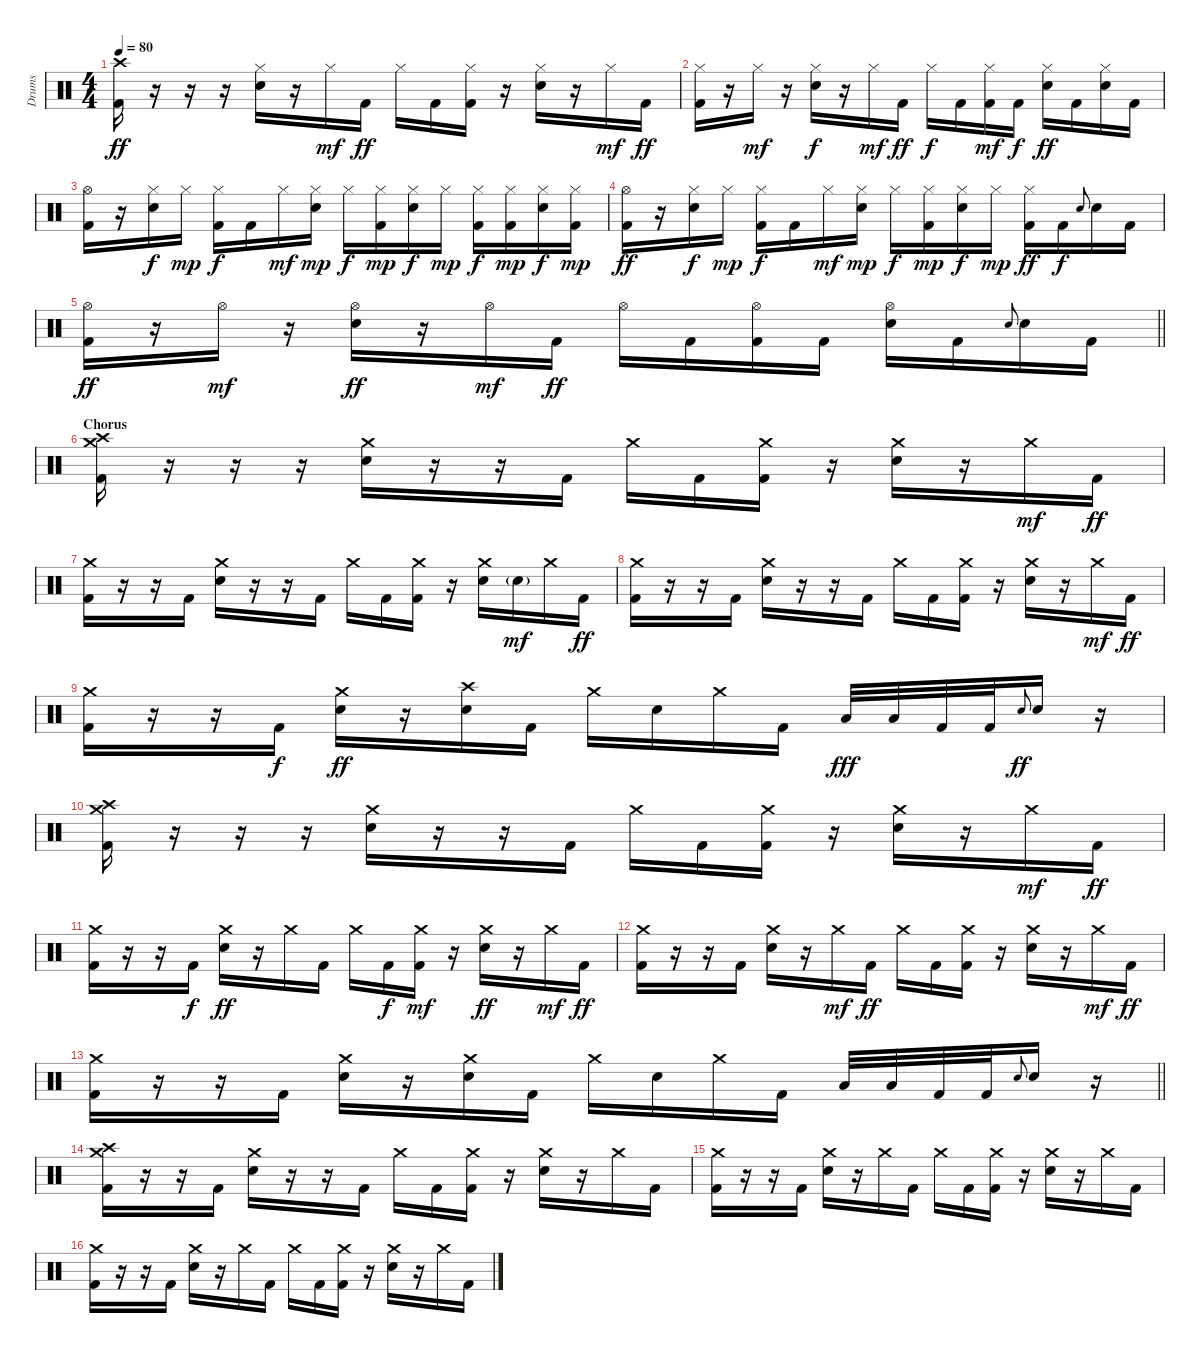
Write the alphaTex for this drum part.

\track ("Drums" "Drums") {instrument percussion}
\staff {score}
\articulation defaults
\ts (4 4)
\tempo 80
\clef neutral
\ks c
("Crash high (hit)" "Kick (hit) 2").16{dy ff} r.16 r.16 r.16 ("Hi-Hat (closed)" "Electric Snare (hit)").16 r.16 "Hi-Hat (closed)".16{dy mf} "Kick (hit) 2".16{dy ff} "Hi-Hat (closed)".16 "Kick (hit) 2".16 ("Hi-Hat (closed)" "Kick (hit) 2").16 r.16 ("Hi-Hat (closed)" "Electric Snare (hit)").16 r.16 "Hi-Hat (closed)".16{dy mf} "Kick (hit) 2".16{dy ff} |
("Hi-Hat (closed)" "Kick (hit) 2").16 r.16 "Hi-Hat (closed)".16{dy mf} r.16 ("Hi-Hat (closed)" "Electric Snare (hit)").16{dy f} r.16 "Hi-Hat (closed)".16{dy mf} "Kick (hit) 2".16{dy ff} "Hi-Hat (closed)".16{dy f} "Kick (hit) 2".16 ("Hi-Hat (closed)" "Kick (hit) 2").16{dy mf} "Kick (hit) 2".16{dy f} ("Hi-Hat (closed)" "Electric Snare (hit)").16{dy ff} "Kick (hit) 2".16 ("Hi-Hat (closed)" "Electric Snare (hit)").16 "Kick (hit) 2".16 |
("Hi-Hat (open)" "Kick (hit) 2").16 r.16 ("Hi-Hat (closed)" "Electric Snare (hit)").16{dy f} "Hi-Hat (closed)".16{dy mp} ("Hi-Hat (closed)" "Kick (hit) 2").16{dy f} "Kick (hit) 2".16 "Hi-Hat (closed)".16{dy mf} ("Hi-Hat (closed)" "Electric Snare (hit)").16{dy mp} "Hi-Hat (closed)".16{dy f} ("Hi-Hat (closed)" "Kick (hit) 2").16{dy mp} ("Hi-Hat (closed)" "Electric Snare (hit)").16{dy f} "Hi-Hat (closed)".16{dy mp} ("Hi-Hat (closed)" "Kick (hit) 2").16{dy f} ("Hi-Hat (closed)" "Kick (hit) 2").16{dy mp} ("Hi-Hat (closed)" "Electric Snare (hit)").16{dy f} ("Hi-Hat (closed)" "Kick (hit) 2").16{dy mp} |
("Hi-Hat (open)" "Kick (hit) 2").16{dy ff} r.16 ("Hi-Hat (closed)" "Electric Snare (hit)").16{dy f} "Hi-Hat (closed)".16{dy mp} ("Hi-Hat (closed)" "Kick (hit) 2").16{dy f} "Kick (hit) 2".16 "Hi-Hat (closed)".16{dy mf} ("Hi-Hat (closed)" "Electric Snare (hit)").16{dy mp} "Hi-Hat (closed)".16{dy f} ("Hi-Hat (closed)" "Kick (hit) 2").16{dy mp} ("Hi-Hat (closed)" "Electric Snare (hit)").16{dy f} "Hi-Hat (closed)".16{dy mp} ("Hi-Hat (closed)" "Kick (hit) 2").16{dy ff} "Kick (hit) 2".16{dy f} "Electric Snare (hit)".8{gr onbeat} "Electric Snare (hit)".16 "Kick (hit) 2".16 |
\barLineRight lightlight
("Hi-Hat (open)" "Kick (hit) 2").16{dy ff} r.16 "Hi-Hat (open)".16{dy mf} r.16 ("Hi-Hat (open)" "Electric Snare (hit)").16{dy ff} r.16 "Hi-Hat (open)".16{dy mf} "Kick (hit) 2".16{dy ff} "Hi-Hat (open)".16 "Kick (hit) 2".16 ("Hi-Hat (open)" "Kick (hit) 2").16 "Kick (hit) 2".16 ("Hi-Hat (open)" "Electric Snare (hit)").16 "Kick (hit) 2".16 "Electric Snare (hit)".8{gr onbeat} "Electric Snare (hit)".16 "Kick (hit) 2".16 |
\section ("" "Chorus")
("Crash medium (hit)" "Crash high (hit)" "Kick (hit) 2").16 r.16 r.16 r.16 ("Crash medium (hit)" "Electric Snare (hit)").16 r.16 r.16 "Kick (hit) 2".16 "Crash medium (hit)".16 "Kick (hit) 2".16 ("Crash medium (hit)" "Kick (hit) 2").16 r.16 ("Crash medium (hit)" "Electric Snare (hit)").16 r.16 "Crash medium (hit)".16{dy mf} "Kick (hit) 2".16{dy ff} |
("Crash medium (hit)" "Kick (hit) 2").16 r.16 r.16 "Kick (hit) 2".16 ("Crash medium (hit)" "Electric Snare (hit)").16 r.16 r.16 "Kick (hit) 2".16 "Crash medium (hit)".16 "Kick (hit) 2".16 ("Crash medium (hit)" "Kick (hit) 2").16 r.16 ("Crash medium (hit)" "Electric Snare (hit)").16 "Electric Snare (hit)"{g}.16{dy mf} "Crash medium (hit)".16 "Kick (hit) 2".16{dy ff} |
("Crash medium (hit)" "Kick (hit) 2").16 r.16 r.16 "Kick (hit) 2".16 ("Crash medium (hit)" "Electric Snare (hit)").16 r.16 r.16 "Kick (hit) 2".16 "Crash medium (hit)".16 "Kick (hit) 2".16 ("Crash medium (hit)" "Kick (hit) 2").16 r.16 ("Crash medium (hit)" "Electric Snare (hit)").16 r.16 "Crash medium (hit)".16{dy mf} "Kick (hit) 2".16{dy ff} |
("Crash medium (hit)" "Kick (hit) 2").16 r.16 r.16 "Kick (hit) 2".16{dy f} ("Crash medium (hit)" "Electric Snare (hit)").16{dy ff} r.16 ("Crash high (hit)" "Electric Snare (hit)").16 "Kick (hit) 2".16 "Crash medium (hit)".16 "Electric Snare (hit)".16 "Crash medium (hit)".16 "Kick (hit) 2".16 "Low Tom (hit)".32{dy fff} "Low Tom (hit)".32 "Kick (hit) 2".32 "Kick (hit) 2".32 "Electric Snare (hit)".8{gr onbeat dy ff} "Electric Snare (hit)".16 r.16 |
("Crash medium (hit)" "Crash high (hit)" "Kick (hit) 2").16 r.16 r.16 r.16 ("Crash medium (hit)" "Electric Snare (hit)").16 r.16 r.16 "Kick (hit) 2".16 "Crash medium (hit)".16 "Kick (hit) 2".16 ("Crash medium (hit)" "Kick (hit) 2").16 r.16 ("Crash medium (hit)" "Electric Snare (hit)").16 r.16 "Crash medium (hit)".16{dy mf} "Kick (hit) 2".16{dy ff} |
("Crash medium (hit)" "Kick (hit) 2").16 r.16 r.16 "Kick (hit) 2".16{dy f} ("Crash medium (hit)" "Electric Snare (hit)").16{dy ff} r.16 "Crash medium (hit)".16 "Kick (hit) 2".16 "Crash medium (hit)".16 "Kick (hit) 2".16{dy f} ("Crash medium (hit)" "Kick (hit) 2").16{dy mf} r.16 ("Crash medium (hit)" "Electric Snare (hit)").16{dy ff} r.16 "Crash medium (hit)".16{dy mf} "Kick (hit) 2".16{dy ff} |
("Crash medium (hit)" "Kick (hit) 2").16 r.16 r.16 "Kick (hit) 2".16 ("Crash medium (hit)" "Electric Snare (hit)").16 r.16 "Crash medium (hit)".16{dy mf} "Kick (hit) 2".16{dy ff} "Crash medium (hit)".16 "Kick (hit) 2".16 ("Crash medium (hit)" "Kick (hit) 2").16 r.16 ("Crash medium (hit)" "Electric Snare (hit)").16 r.16 "Crash medium (hit)".16{dy mf} "Kick (hit) 2".16{dy ff} |
\barLineRight lightlight
("Crash medium (hit)" "Kick (hit) 2").16 r.16 r.16 "Kick (hit) 2".16 ("Crash medium (hit)" "Electric Snare (hit)").16 r.16 ("Crash medium (hit)" "Electric Snare (hit)").16 "Kick (hit) 2".16 "Crash medium (hit)".16 "Electric Snare (hit)".16 "Crash medium (hit)".16 "Kick (hit) 2".16 "Low Tom (hit)".32 "Low Tom (hit)".32 "Kick (hit) 2".32 "Kick (hit) 2".32 "Electric Snare (hit)".8{gr onbeat} "Electric Snare (hit)".16 r.16 |
("Crash medium (hit)" "Crash high (hit)" "Kick (hit) 2").16 r.16 r.16 "Kick (hit) 2".16 ("Crash medium (hit)" "Electric Snare (hit)").16 r.16 r.16 "Kick (hit) 2".16 "Crash medium (hit)".16 "Kick (hit) 2".16 ("Crash medium (hit)" "Kick (hit) 2").16 r.16 ("Crash medium (hit)" "Electric Snare (hit)").16 r.16 "Crash medium (hit)".16 "Kick (hit) 2".16 |
("Crash medium (hit)" "Kick (hit) 2").16 r.16 r.16 "Kick (hit) 2".16 ("Crash medium (hit)" "Electric Snare (hit)").16 r.16 "Crash medium (hit)".16 "Kick (hit) 2".16 "Crash medium (hit)".16 "Kick (hit) 2".16 ("Crash medium (hit)" "Kick (hit) 2").16 r.16 ("Crash medium (hit)" "Electric Snare (hit)").16 r.16 "Crash medium (hit)".16 "Kick (hit) 2".16 |
("Crash medium (hit)" "Kick (hit) 2").16 r.16 r.16 "Kick (hit) 2".16 ("Crash medium (hit)" "Electric Snare (hit)").16 r.16 "Crash medium (hit)".16 "Kick (hit) 2".16 "Crash medium (hit)".16 "Kick (hit) 2".16 ("Crash medium (hit)" "Kick (hit) 2").16 r.16 ("Crash medium (hit)" "Electric Snare (hit)").16 r.16 "Crash medium (hit)".16 "Kick (hit) 2".16
